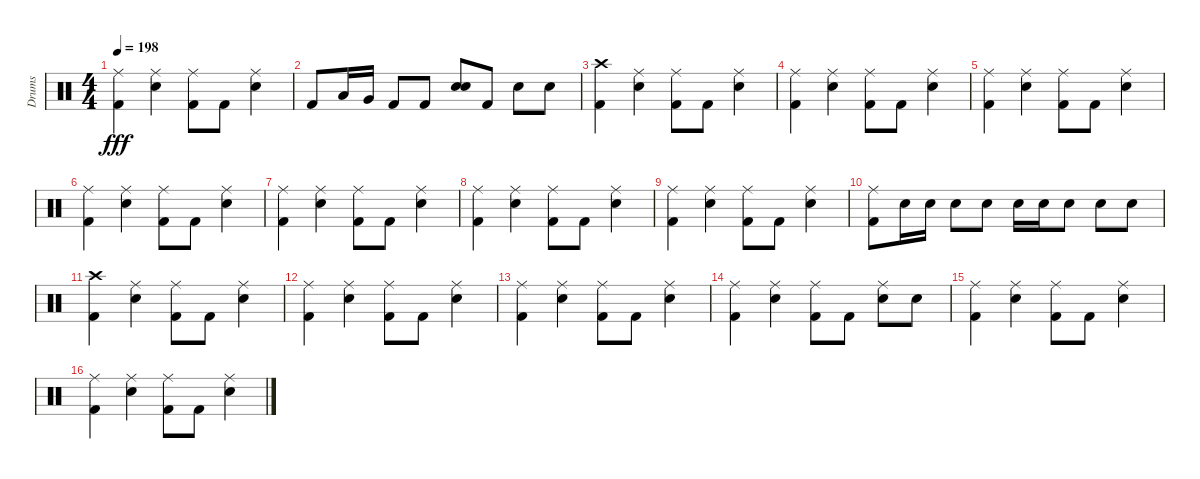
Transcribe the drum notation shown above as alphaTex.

\track ("Drums" "Drums") {instrument percussion}
\staff {score}
\articulation defaults
\ts (4 4)
\tempo 198
\clef neutral
\ks c
("Ride (middle)" "Kick (hit) 2").4{dy fff} ("Ride (middle)" "Electric Snare (hit)").4 ("Ride (middle)" "Kick (hit) 2").8 "Kick (hit) 2".8 ("Ride (middle)" "Electric Snare (hit)").4 |
"Kick (hit) 2".8 "Low Tom (hit)".16 "Very Low Tom (hit)".16 "Kick (hit) 2".8 "Kick (hit) 2".8 ("Electric Snare (hit)" "Electric Snare (hit)").8{bd 480} "Kick (hit) 2".8 "Electric Snare (hit)".8 "Electric Snare (hit)".8 |
("Crash high (hit)" "Kick (hit) 2").4 ("Ride (middle)" "Electric Snare (hit)").4 ("Ride (middle)" "Kick (hit) 2").8 "Kick (hit) 2".8 ("Ride (middle)" "Electric Snare (hit)").4 |
("Ride (middle)" "Kick (hit) 2").4 ("Ride (middle)" "Electric Snare (hit)").4 ("Ride (middle)" "Kick (hit) 2").8 "Kick (hit) 2".8 ("Ride (middle)" "Electric Snare (hit)").4 |
("Ride (middle)" "Kick (hit) 2").4 ("Ride (middle)" "Electric Snare (hit)").4 ("Ride (middle)" "Kick (hit) 2").8 "Kick (hit) 2".8 ("Ride (middle)" "Electric Snare (hit)").4 |
("Ride (middle)" "Kick (hit) 2").4 ("Ride (middle)" "Electric Snare (hit)").4 ("Ride (middle)" "Kick (hit) 2").8 "Kick (hit) 2".8 ("Ride (middle)" "Electric Snare (hit)").4 |
("Ride (middle)" "Kick (hit) 2").4 ("Ride (middle)" "Electric Snare (hit)").4 ("Ride (middle)" "Kick (hit) 2").8 "Kick (hit) 2".8 ("Ride (middle)" "Electric Snare (hit)").4 |
("Ride (middle)" "Kick (hit) 2").4 ("Ride (middle)" "Electric Snare (hit)").4 ("Ride (middle)" "Kick (hit) 2").8 "Kick (hit) 2".8 ("Ride (middle)" "Electric Snare (hit)").4 |
("Ride (middle)" "Kick (hit) 2").4 ("Ride (middle)" "Electric Snare (hit)").4 ("Ride (middle)" "Kick (hit) 2").8 "Kick (hit) 2".8 ("Ride (middle)" "Electric Snare (hit)").4 |
("Ride (middle)" "Kick (hit) 2").8 "Electric Snare (hit)".16 "Electric Snare (hit)".16 "Electric Snare (hit)".8 "Electric Snare (hit)".8 "Electric Snare (hit)".16 "Electric Snare (hit)".16 "Electric Snare (hit)".8 "Electric Snare (hit)".8 "Electric Snare (hit)".8 |
("Crash high (hit)" "Kick (hit) 2").4 ("Ride (middle)" "Electric Snare (hit)").4 ("Ride (middle)" "Kick (hit) 2").8 "Kick (hit) 2".8 ("Ride (middle)" "Electric Snare (hit)").4 |
("Ride (middle)" "Kick (hit) 2").4 ("Ride (middle)" "Electric Snare (hit)").4 ("Ride (middle)" "Kick (hit) 2").8 "Kick (hit) 2".8 ("Ride (middle)" "Electric Snare (hit)").4 |
("Ride (middle)" "Kick (hit) 2").4 ("Ride (middle)" "Electric Snare (hit)").4 ("Ride (middle)" "Kick (hit) 2").8 "Kick (hit) 2".8 ("Ride (middle)" "Electric Snare (hit)").4 |
("Ride (middle)" "Kick (hit) 2").4 ("Ride (middle)" "Electric Snare (hit)").4 ("Ride (middle)" "Kick (hit) 2").8 "Kick (hit) 2".8 ("Ride (middle)" "Electric Snare (hit)").8 "Electric Snare (hit)".8 |
("Ride (middle)" "Kick (hit) 2").4 ("Ride (middle)" "Electric Snare (hit)").4 ("Ride (middle)" "Kick (hit) 2").8 "Kick (hit) 2".8 ("Ride (middle)" "Electric Snare (hit)").4 |
("Ride (middle)" "Kick (hit) 2").4 ("Ride (middle)" "Electric Snare (hit)").4 ("Ride (middle)" "Kick (hit) 2").8 "Kick (hit) 2".8 ("Ride (middle)" "Electric Snare (hit)").4
